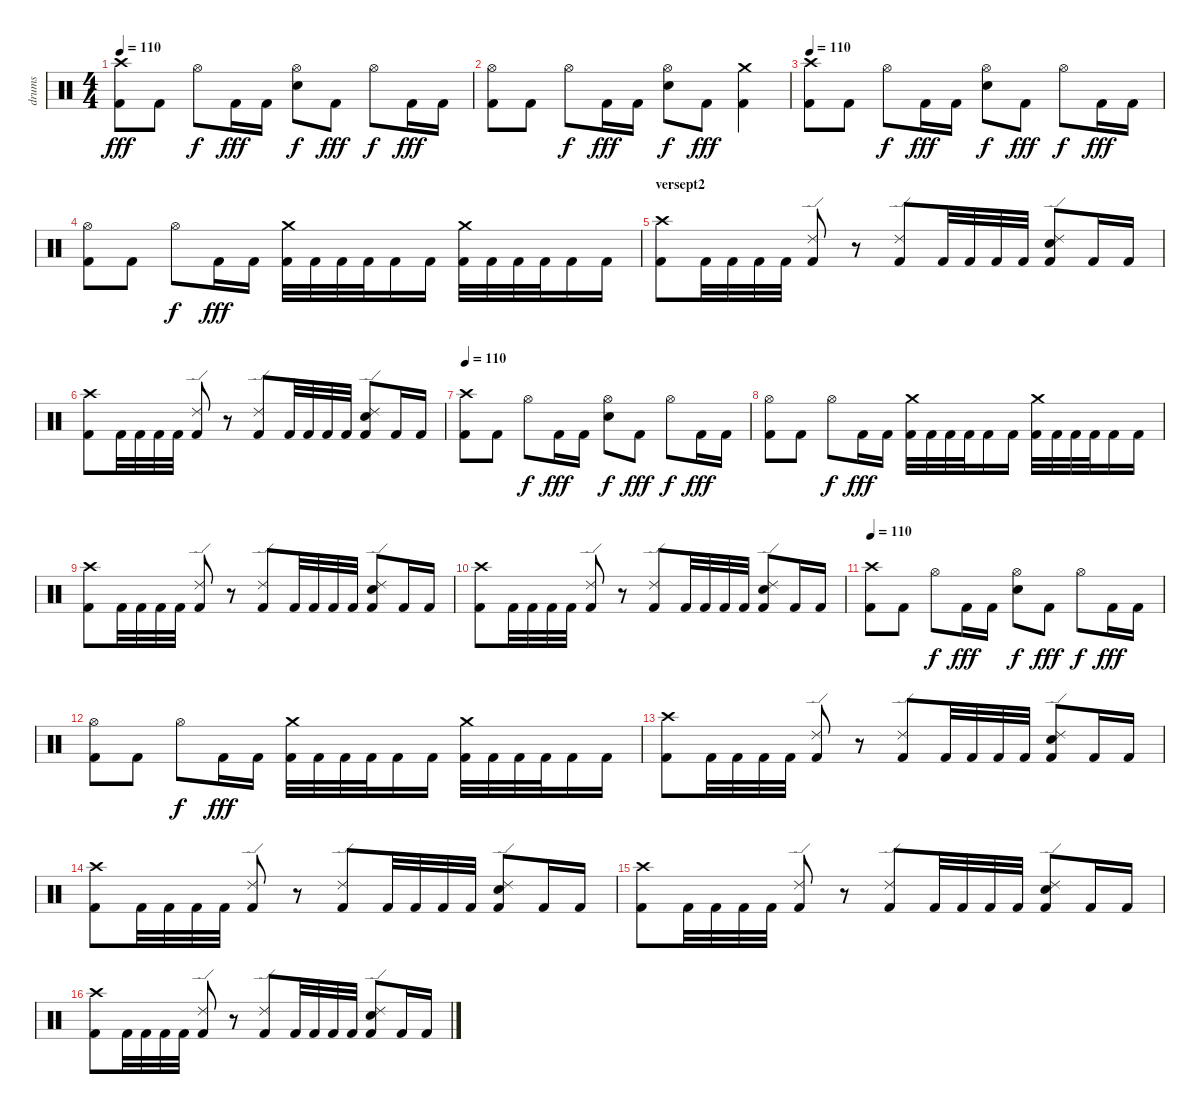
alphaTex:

\track ("drums" "drums") {instrument percussion}
\staff {score}
\articulation defaults
\ts (4 4)
\tempo 110
\clef neutral
\ks c
("Crash high (hit)" "Kick (hit) 2").8{dy fff} "Kick (hit) 2".8 "Hi-Hat (open)".8{dy f} "Kick (hit) 2".16{dy fff} "Kick (hit) 2".16 ("Hi-Hat (open)" "Snare (hit) 2").8{dy f} "Kick (hit) 2".8{dy fff} "Hi-Hat (open)".8{dy f} "Kick (hit) 2".16{dy fff} "Kick (hit) 2".16 |
("Hi-Hat (open)" "Kick (hit) 2").8 "Kick (hit) 2".8 "Hi-Hat (open)".8{dy f} "Kick (hit) 2".16{dy fff} "Kick (hit) 2".16 ("Hi-Hat (open)" "Snare (hit) 2").8{dy f} "Kick (hit) 2".8{dy fff} ("Crash medium (hit)" "Kick (hit) 2").4 |
\tempo 110
("Crash high (hit)" "Kick (hit) 2").8 "Kick (hit) 2".8 "Hi-Hat (open)".8{dy f} "Kick (hit) 2".16{dy fff} "Kick (hit) 2".16 ("Hi-Hat (open)" "Snare (hit) 2").8{dy f} "Kick (hit) 2".8{dy fff} "Hi-Hat (open)".8{dy f} "Kick (hit) 2".16{dy fff} "Kick (hit) 2".16 |
("Hi-Hat (open)" "Kick (hit) 2").8 "Kick (hit) 2".8 "Hi-Hat (open)".8{dy f} "Kick (hit) 2".16{dy fff} "Kick (hit) 2".16 ("Crash medium (hit)" "Kick (hit) 2").32 "Kick (hit) 2".32 "Kick (hit) 2".32 "Kick (hit) 2".32 "Kick (hit) 2".16 "Kick (hit) 2".16 ("Crash medium (hit)" "Kick (hit) 2").32 "Kick (hit) 2".32 "Kick (hit) 2".32 "Kick (hit) 2".32 "Kick (hit) 2".16 "Kick (hit) 2".16 |
\section ("" "versept2")
("Crash high (hit)" "Kick (hit) 2").8 "Kick (hit) 2".32 "Kick (hit) 2".32 "Kick (hit) 2".32 "Kick (hit) 2".32 ("Ride (edge) 2" "Kick (hit) 2").8 r.8 ("Ride (edge) 2" "Kick (hit) 2").8 "Kick (hit) 2".32 "Kick (hit) 2".32 "Kick (hit) 2".32 "Kick (hit) 2".32 ("Ride (edge) 2" "Snare (hit) 2" "Kick (hit) 2").8 "Kick (hit) 2".16 "Kick (hit) 2".16 |
("Crash high (hit)" "Kick (hit) 2").8 "Kick (hit) 2".32 "Kick (hit) 2".32 "Kick (hit) 2".32 "Kick (hit) 2".32 ("Ride (edge) 2" "Kick (hit) 2").8 r.8 ("Ride (edge) 2" "Kick (hit) 2").8 "Kick (hit) 2".32 "Kick (hit) 2".32 "Kick (hit) 2".32 "Kick (hit) 2".32 ("Ride (edge) 2" "Snare (hit) 2" "Kick (hit) 2").8 "Kick (hit) 2".16 "Kick (hit) 2".16 |
\tempo 110
("Crash high (hit)" "Kick (hit) 2").8 "Kick (hit) 2".8 "Hi-Hat (open)".8{dy f} "Kick (hit) 2".16{dy fff} "Kick (hit) 2".16 ("Hi-Hat (open)" "Snare (hit) 2").8{dy f} "Kick (hit) 2".8{dy fff} "Hi-Hat (open)".8{dy f} "Kick (hit) 2".16{dy fff} "Kick (hit) 2".16 |
("Hi-Hat (open)" "Kick (hit) 2").8 "Kick (hit) 2".8 "Hi-Hat (open)".8{dy f} "Kick (hit) 2".16{dy fff} "Kick (hit) 2".16 ("Crash medium (hit)" "Kick (hit) 2").32 "Kick (hit) 2".32 "Kick (hit) 2".32 "Kick (hit) 2".32 "Kick (hit) 2".16 "Kick (hit) 2".16 ("Crash medium (hit)" "Kick (hit) 2").32 "Kick (hit) 2".32 "Kick (hit) 2".32 "Kick (hit) 2".32 "Kick (hit) 2".16 "Kick (hit) 2".16 |
("Crash high (hit)" "Kick (hit) 2").8 "Kick (hit) 2".32 "Kick (hit) 2".32 "Kick (hit) 2".32 "Kick (hit) 2".32 ("Ride (edge) 2" "Kick (hit) 2").8 r.8 ("Ride (edge) 2" "Kick (hit) 2").8 "Kick (hit) 2".32 "Kick (hit) 2".32 "Kick (hit) 2".32 "Kick (hit) 2".32 ("Ride (edge) 2" "Snare (hit) 2" "Kick (hit) 2").8 "Kick (hit) 2".16 "Kick (hit) 2".16 |
("Crash high (hit)" "Kick (hit) 2").8 "Kick (hit) 2".32 "Kick (hit) 2".32 "Kick (hit) 2".32 "Kick (hit) 2".32 ("Ride (edge) 2" "Kick (hit) 2").8 r.8 ("Ride (edge) 2" "Kick (hit) 2").8 "Kick (hit) 2".32 "Kick (hit) 2".32 "Kick (hit) 2".32 "Kick (hit) 2".32 ("Ride (edge) 2" "Snare (hit) 2" "Kick (hit) 2").8 "Kick (hit) 2".16 "Kick (hit) 2".16 |
\tempo 110
("Crash high (hit)" "Kick (hit) 2").8 "Kick (hit) 2".8 "Hi-Hat (open)".8{dy f} "Kick (hit) 2".16{dy fff} "Kick (hit) 2".16 ("Hi-Hat (open)" "Snare (hit) 2").8{dy f} "Kick (hit) 2".8{dy fff} "Hi-Hat (open)".8{dy f} "Kick (hit) 2".16{dy fff} "Kick (hit) 2".16 |
("Hi-Hat (open)" "Kick (hit) 2").8 "Kick (hit) 2".8 "Hi-Hat (open)".8{dy f} "Kick (hit) 2".16{dy fff} "Kick (hit) 2".16 ("Crash medium (hit)" "Kick (hit) 2").32 "Kick (hit) 2".32 "Kick (hit) 2".32 "Kick (hit) 2".32 "Kick (hit) 2".16 "Kick (hit) 2".16 ("Crash medium (hit)" "Kick (hit) 2").32 "Kick (hit) 2".32 "Kick (hit) 2".32 "Kick (hit) 2".32 "Kick (hit) 2".16 "Kick (hit) 2".16 |
("Crash high (hit)" "Kick (hit) 2").8 "Kick (hit) 2".32 "Kick (hit) 2".32 "Kick (hit) 2".32 "Kick (hit) 2".32 ("Ride (edge) 2" "Kick (hit) 2").8 r.8 ("Ride (edge) 2" "Kick (hit) 2").8 "Kick (hit) 2".32 "Kick (hit) 2".32 "Kick (hit) 2".32 "Kick (hit) 2".32 ("Ride (edge) 2" "Snare (hit) 2" "Kick (hit) 2").8 "Kick (hit) 2".16 "Kick (hit) 2".16 |
("Crash high (hit)" "Kick (hit) 2").8 "Kick (hit) 2".32 "Kick (hit) 2".32 "Kick (hit) 2".32 "Kick (hit) 2".32 ("Ride (edge) 2" "Kick (hit) 2").8 r.8 ("Ride (edge) 2" "Kick (hit) 2").8 "Kick (hit) 2".32 "Kick (hit) 2".32 "Kick (hit) 2".32 "Kick (hit) 2".32 ("Ride (edge) 2" "Snare (hit) 2" "Kick (hit) 2").8 "Kick (hit) 2".16 "Kick (hit) 2".16 |
("Crash high (hit)" "Kick (hit) 2").8 "Kick (hit) 2".32 "Kick (hit) 2".32 "Kick (hit) 2".32 "Kick (hit) 2".32 ("Ride (edge) 2" "Kick (hit) 2").8 r.8 ("Ride (edge) 2" "Kick (hit) 2").8 "Kick (hit) 2".32 "Kick (hit) 2".32 "Kick (hit) 2".32 "Kick (hit) 2".32 ("Ride (edge) 2" "Snare (hit) 2" "Kick (hit) 2").8 "Kick (hit) 2".16 "Kick (hit) 2".16 |
("Crash high (hit)" "Kick (hit) 2").8 "Kick (hit) 2".32 "Kick (hit) 2".32 "Kick (hit) 2".32 "Kick (hit) 2".32 ("Ride (edge) 2" "Kick (hit) 2").8 r.8 ("Ride (edge) 2" "Kick (hit) 2").8 "Kick (hit) 2".32 "Kick (hit) 2".32 "Kick (hit) 2".32 "Kick (hit) 2".32 ("Ride (edge) 2" "Snare (hit) 2" "Kick (hit) 2").8 "Kick (hit) 2".16 "Kick (hit) 2".16
